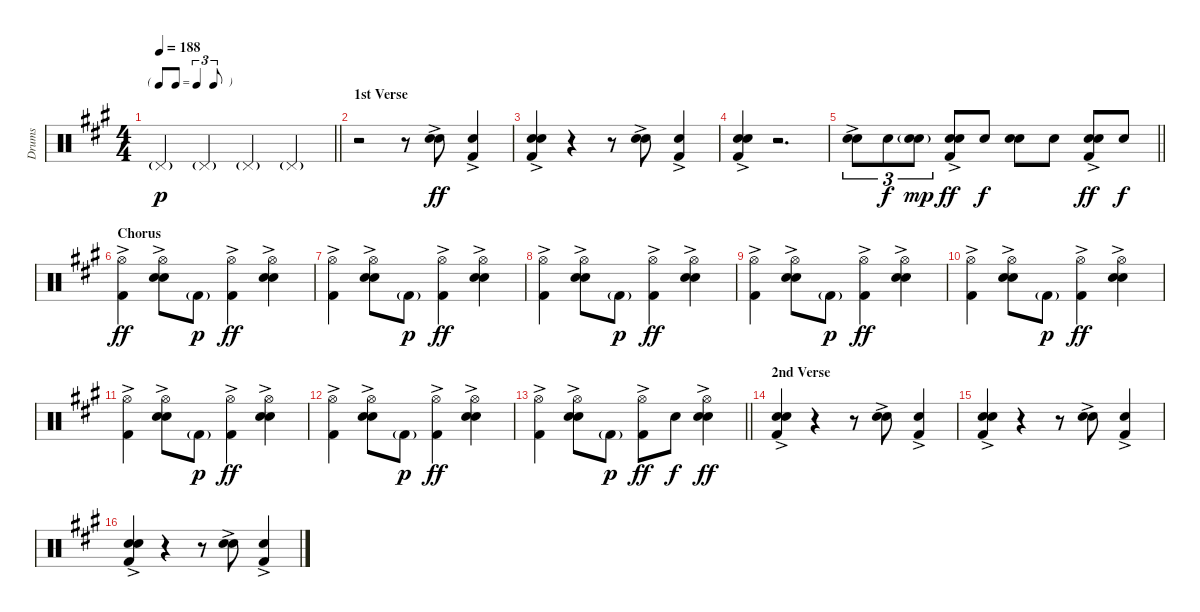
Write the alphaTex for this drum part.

\track ("Drums" "Drums") {instrument percussion}
\staff {score}
\articulation defaults
\ts (4 4)
\tf triplet8th
\tempo 188
\clef neutral
\barLineRight lightlight
\ks a "Pedal Hi-Hat (hit)"{g}.4{dy p} "Pedal Hi-Hat (hit)"{g}.4 "Pedal Hi-Hat (hit)"{g}.4 "Pedal Hi-Hat (hit)"{g}.4
|
\section ("" "1st Verse")
r.2 r.8 ("Electric Snare (hit)"{ac} "Snare (hit) 2").8{dy ff} ("Snare (hit) 2" "Kick (hit) 2"{ac}).4 |
("Electric Snare (hit)"{ac} "Snare (hit) 2" "Kick (hit) 2"{ac}).4 r.4 r.8 ("Electric Snare (hit)"{ac} "Snare (hit) 2").8 ("Snare (hit) 2" "Kick (hit) 2"{ac}).4 |
("Electric Snare (hit)"{ac} "Snare (hit) 2" "Kick (hit) 2"{ac}).4 r.2{d} |
\barLineRight lightlight
("Electric Snare (hit)"{ac} "Snare (hit) 2").8{tu (3 2)} "Snare (hit) 2".8{tu (3 2) dy f} ("Electric Snare (hit)"{g} "Snare (hit) 2").8{tu (3 2) dy mp} ("Electric Snare (hit)"{ac} "Snare (hit) 2" "Kick (hit) 2").8{dy ff} "Snare (hit) 2".8{dy f} ("Electric Snare (hit)" "Snare (hit) 2").8 "Snare (hit) 2".8 ("Electric Snare (hit)"{ac} "Snare (hit) 2" "Kick (hit) 2").8{dy ff} "Snare (hit) 2".8{dy f} |
\section ("" "Chorus")
("Hi-Hat (open)" "Kick (hit) 2"{ac}).4{dy ff} ("Hi-Hat (open)" "Electric Snare (hit)"{ac} "Snare (hit) 2").8 "Kick (hit) 2"{g}.8{dy p} ("Hi-Hat (open)" "Kick (hit) 2"{ac}).4{dy ff} ("Hi-Hat (open)" "Electric Snare (hit)"{ac} "Snare (hit) 2").4 |
("Hi-Hat (open)" "Kick (hit) 2"{ac}).4 ("Hi-Hat (open)" "Electric Snare (hit)"{ac} "Snare (hit) 2").8 "Kick (hit) 2"{g}.8{dy p} ("Hi-Hat (open)" "Kick (hit) 2"{ac}).4{dy ff} ("Hi-Hat (open)" "Electric Snare (hit)"{ac} "Snare (hit) 2").4 |
("Hi-Hat (open)" "Kick (hit) 2"{ac}).4 ("Hi-Hat (open)" "Electric Snare (hit)"{ac} "Snare (hit) 2").8 "Kick (hit) 2"{g}.8{dy p} ("Hi-Hat (open)" "Kick (hit) 2"{ac}).4{dy ff} ("Hi-Hat (open)" "Electric Snare (hit)"{ac} "Snare (hit) 2").4 |
("Hi-Hat (open)" "Kick (hit) 2"{ac}).4 ("Hi-Hat (open)" "Electric Snare (hit)"{ac} "Snare (hit) 2").8 "Kick (hit) 2"{g}.8{dy p} ("Hi-Hat (open)" "Kick (hit) 2"{ac}).4{dy ff} ("Hi-Hat (open)" "Electric Snare (hit)"{ac} "Snare (hit) 2").4 |
("Hi-Hat (open)" "Kick (hit) 2"{ac}).4 ("Hi-Hat (open)" "Electric Snare (hit)"{ac} "Snare (hit) 2").8 "Kick (hit) 2"{g}.8{dy p} ("Hi-Hat (open)" "Kick (hit) 2"{ac}).4{dy ff} ("Hi-Hat (open)" "Electric Snare (hit)"{ac} "Snare (hit) 2").4 |
("Hi-Hat (open)" "Kick (hit) 2"{ac}).4 ("Hi-Hat (open)" "Electric Snare (hit)"{ac} "Snare (hit) 2").8 "Kick (hit) 2"{g}.8{dy p} ("Hi-Hat (open)" "Kick (hit) 2"{ac}).4{dy ff} ("Hi-Hat (open)" "Electric Snare (hit)"{ac} "Snare (hit) 2").4 |
("Hi-Hat (open)" "Kick (hit) 2"{ac}).4 ("Hi-Hat (open)" "Electric Snare (hit)"{ac} "Snare (hit) 2").8 "Kick (hit) 2"{g}.8{dy p} ("Hi-Hat (open)" "Kick (hit) 2"{ac}).4{dy ff} ("Hi-Hat (open)" "Electric Snare (hit)"{ac} "Snare (hit) 2").4 |
\barLineRight lightlight
("Hi-Hat (open)" "Kick (hit) 2"{ac}).4 ("Hi-Hat (open)" "Electric Snare (hit)"{ac} "Snare (hit) 2").8 "Kick (hit) 2"{g}.8{dy p} ("Hi-Hat (open)" "Kick (hit) 2"{ac}).8{dy ff} "Snare (hit) 2".8{dy f} ("Hi-Hat (open)" "Electric Snare (hit)"{ac} "Snare (hit) 2").4{dy ff} |
\section ("" "2nd Verse")
("Electric Snare (hit)"{ac} "Snare (hit) 2" "Kick (hit) 2"{ac}).4 r.4 r.8 ("Electric Snare (hit)"{ac} "Snare (hit) 2").8 ("Snare (hit) 2" "Kick (hit) 2"{ac}).4 |
("Electric Snare (hit)"{ac} "Snare (hit) 2" "Kick (hit) 2"{ac}).4 r.4 r.8 ("Electric Snare (hit)"{ac} "Snare (hit) 2").8 ("Snare (hit) 2" "Kick (hit) 2"{ac}).4 |
("Electric Snare (hit)"{ac} "Snare (hit) 2" "Kick (hit) 2"{ac}).4 r.4 r.8 ("Electric Snare (hit)"{ac} "Snare (hit) 2").8 ("Snare (hit) 2" "Kick (hit) 2"{ac}).4
